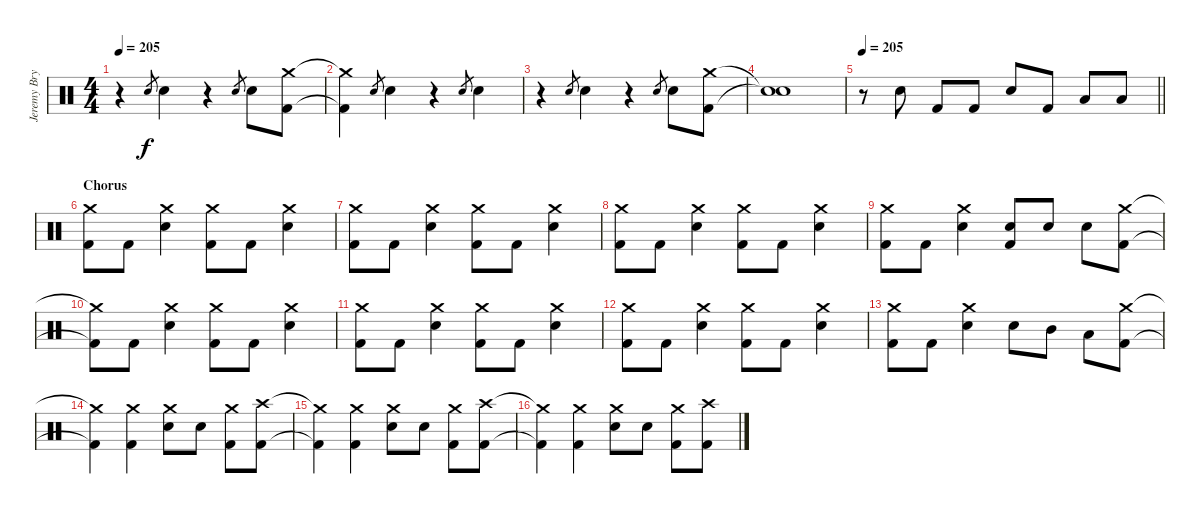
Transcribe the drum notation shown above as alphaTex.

\track ("Jeremy Bryan - Drums" "Jeremy Bry") {instrument percussion}
\staff {score}
\articulation defaults
\ts (4 4)
\tempo 205
\clef neutral
\ks c
r.4{dy f} "Electric Snare (hit)".8{gr} "Electric Snare (hit)".4 r.4 "Electric Snare (hit)".8{gr} "Electric Snare (hit)".8 ("Crash medium (hit)" "Kick (hit) 2").8 |
("Crash medium (hit)"{t} "Kick (hit) 2"{t}).4 "Electric Snare (hit)".8{gr} "Electric Snare (hit)".4 r.4 "Electric Snare (hit)".8{gr} "Electric Snare (hit)".4 |
r.4 "Electric Snare (hit)".8{gr} "Electric Snare (hit)".4 r.4 "Electric Snare (hit)".8{gr} "Electric Snare (hit)".8 ("Crash medium (hit)" "Kick (hit) 2").8 |
("Snare (hit)"{t} "Snare (hit)"{t}).1 |
\tempo 205
\barLineRight lightlight
r.8 "Electric Snare (hit)".8 "Kick (hit) 2".8 "Kick (hit) 2".8 "Electric Snare (hit)".8 "Kick (hit) 2".8 "Low Tom (hit)".8 "Low Tom (hit)".8 |
\section ("" "Chorus")
("Crash medium (hit)" "Kick (hit) 2").8 "Kick (hit) 2".8 ("Crash medium (hit)" "Electric Snare (hit)").4 ("Crash medium (hit)" "Kick (hit) 2").8 "Kick (hit) 2".8 ("Crash medium (hit)" "Electric Snare (hit)").4 |
("Crash medium (hit)" "Kick (hit) 2").8 "Kick (hit) 2".8 ("Crash medium (hit)" "Electric Snare (hit)").4 ("Crash medium (hit)" "Kick (hit) 2").8 "Kick (hit) 2".8 ("Crash medium (hit)" "Electric Snare (hit)").4 |
("Crash medium (hit)" "Kick (hit) 2").8 "Kick (hit) 2".8 ("Crash medium (hit)" "Electric Snare (hit)").4 ("Crash medium (hit)" "Kick (hit) 2").8 "Kick (hit) 2".8 ("Crash medium (hit)" "Electric Snare (hit)").4 |
("Crash medium (hit)" "Kick (hit) 2").8 "Kick (hit) 2".8 ("Crash medium (hit)" "Electric Snare (hit)").4 ("Kick (hit) 2" "Electric Snare (hit)").8 "Electric Snare (hit)".8 "Electric Snare (hit)".8 ("Crash medium (hit)" "Kick (hit) 2").8 |
("Crash medium (hit)"{t} "Kick (hit) 2"{t}).8 "Kick (hit) 2".8 ("Crash medium (hit)" "Electric Snare (hit)").4 ("Crash medium (hit)" "Kick (hit) 2").8 "Kick (hit) 2".8 ("Crash medium (hit)" "Electric Snare (hit)").4 |
("Crash medium (hit)" "Kick (hit) 2").8 "Kick (hit) 2".8 ("Crash medium (hit)" "Electric Snare (hit)").4 ("Crash medium (hit)" "Kick (hit) 2").8 "Kick (hit) 2".8 ("Crash medium (hit)" "Electric Snare (hit)").4 |
("Crash medium (hit)" "Kick (hit) 2").8 "Kick (hit) 2".8 ("Crash medium (hit)" "Electric Snare (hit)").4 ("Crash medium (hit)" "Kick (hit) 2").8 "Kick (hit) 2".8 ("Crash medium (hit)" "Electric Snare (hit)").4 |
("Crash medium (hit)" "Kick (hit) 2").8 "Kick (hit) 2".8 ("Crash medium (hit)" "Electric Snare (hit)").4 "Electric Snare (hit)".8 "Mid Tom (hit)".8 "Low Tom (hit)".8 ("Crash medium (hit)" "Kick (hit) 2").8 |
("Crash medium (hit)"{t} "Kick (hit) 2"{t}).4 ("Crash medium (hit)" "Kick (hit) 2").4 ("Crash medium (hit)" "Electric Snare (hit)").8 "Electric Snare (hit)".8 ("Crash medium (hit)" "Kick (hit) 2").8 ("Crash high (hit)" "Kick (hit) 2").8 |
("Crash medium (hit)"{t} "Kick (hit) 2"{t}).4 ("Crash medium (hit)" "Kick (hit) 2").4 ("Crash medium (hit)" "Electric Snare (hit)").8 "Electric Snare (hit)".8 ("Crash medium (hit)" "Kick (hit) 2").8 ("Crash high (hit)" "Kick (hit) 2").8 |
("Crash medium (hit)"{t} "Kick (hit) 2"{t}).4 ("Crash medium (hit)" "Kick (hit) 2").4 ("Crash medium (hit)" "Electric Snare (hit)").8 "Electric Snare (hit)".8 ("Crash medium (hit)" "Kick (hit) 2").8 ("Crash high (hit)" "Kick (hit) 2").8
